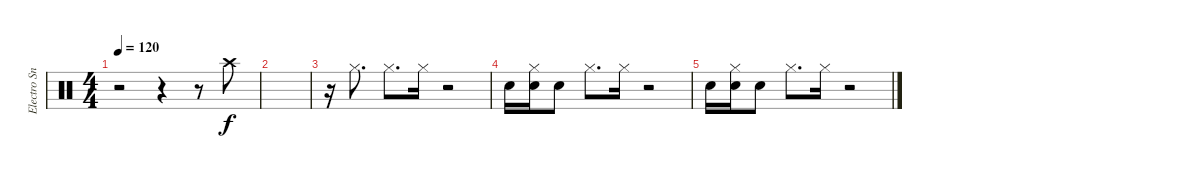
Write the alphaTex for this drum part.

\track ("Electro Snare" "Electro Sn") {instrument percussion}
\staff {score}
\articulation defaults
\ts (4 4)
\tempo 120
\clef neutral
\ks c
r.2{dy f} r.4 r.8 "Crash high (hit)".8 |
|
r.16 "Hi-Hat (closed)".8{d} "Hi-Hat (closed)".8{d} "Hi-Hat (closed)".16 r.2 |
"Electric Snare (hit)".16 ("Hi-Hat (closed)" "Electric Snare (hit)").16 "Electric Snare (hit)".8 "Hi-Hat (closed)".8{d} "Hi-Hat (closed)".16 r.2 |
"Electric Snare (hit)".16 ("Hi-Hat (closed)" "Electric Snare (hit)").16 "Electric Snare (hit)".8 "Hi-Hat (closed)".8{d} "Hi-Hat (closed)".16 r.2
